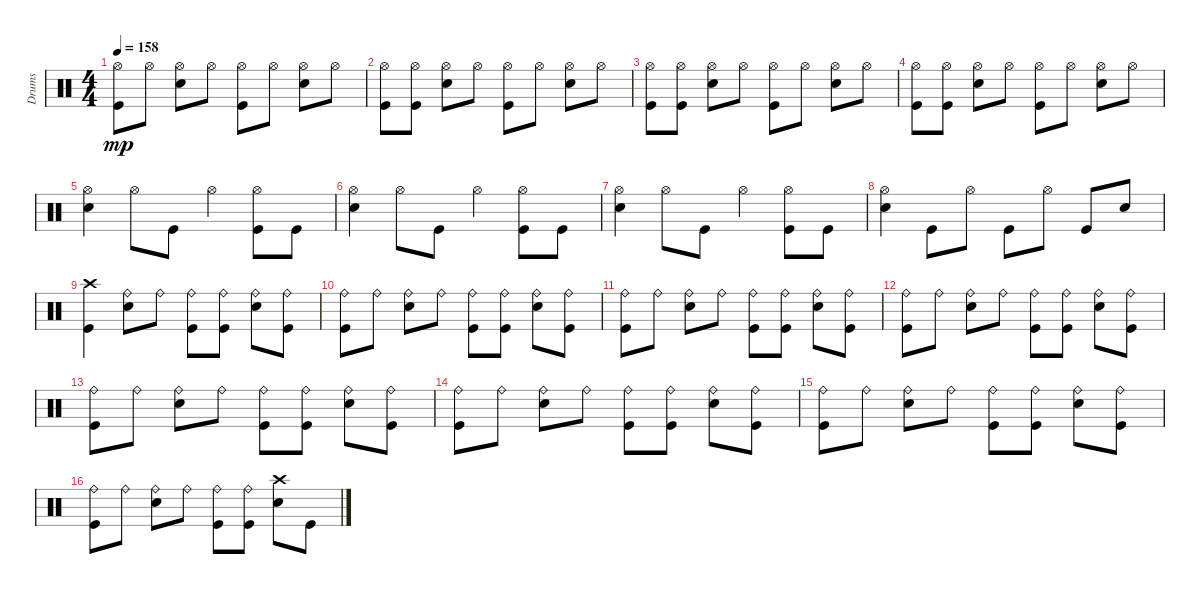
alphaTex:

\track ("Drums" "Drums") {instrument percussion}
\staff {score}
\articulation defaults
\ts (4 4)
\tempo 158
\clef neutral
\ks c
("Hi-Hat (open)" "Kick (hit)").8{dy mp} "Hi-Hat (open)".8 ("Hi-Hat (open)" "Snare (hit) 2").8 "Hi-Hat (open)".8 ("Hi-Hat (open)" "Kick (hit)").8 "Hi-Hat (open)".8 ("Hi-Hat (open)" "Snare (hit) 2").8 "Hi-Hat (open)".8 |
("Hi-Hat (open)" "Kick (hit)").8 ("Hi-Hat (open)" "Kick (hit)").8 ("Hi-Hat (open)" "Snare (hit) 2").8 "Hi-Hat (open)".8 ("Hi-Hat (open)" "Kick (hit)").8 "Hi-Hat (open)".8 ("Hi-Hat (open)" "Snare (hit) 2").8 "Hi-Hat (open)".8 |
("Hi-Hat (open)" "Kick (hit)").8 ("Hi-Hat (open)" "Kick (hit)").8 ("Hi-Hat (open)" "Snare (hit) 2").8 "Hi-Hat (open)".8 ("Hi-Hat (open)" "Kick (hit)").8 "Hi-Hat (open)".8 ("Hi-Hat (open)" "Snare (hit) 2").8 "Hi-Hat (open)".8 |
("Hi-Hat (open)" "Kick (hit)").8 ("Hi-Hat (open)" "Kick (hit)").8 ("Hi-Hat (open)" "Snare (hit) 2").8 "Hi-Hat (open)".8 ("Hi-Hat (open)" "Kick (hit)").8 "Hi-Hat (open)".8 ("Hi-Hat (open)" "Snare (hit) 2").8 "Hi-Hat (open)".8 |
("Hi-Hat (open)" "Snare (hit) 2").4 "Hi-Hat (open)".8 "Kick (hit)".8 "Hi-Hat (open)".4 ("Hi-Hat (open)" "Kick (hit)").8 "Kick (hit)".8 |
("Hi-Hat (open)" "Snare (hit) 2").4 "Hi-Hat (open)".8 "Kick (hit)".8 "Hi-Hat (open)".4 ("Hi-Hat (open)" "Kick (hit)").8 "Kick (hit)".8 |
("Hi-Hat (open)" "Snare (hit) 2").4 "Hi-Hat (open)".8 "Kick (hit)".8 "Hi-Hat (open)".4 ("Hi-Hat (open)" "Kick (hit)").8 "Kick (hit)".8 |
("Hi-Hat (open)" "Snare (hit) 2").4 "Kick (hit)".8 "Hi-Hat (open)".8 "Kick (hit)".8 "Hi-Hat (open)".8 "Kick (hit)".8 "Snare (hit) 2".8 |
("Crash high (hit)" "Kick (hit)").4 ("Ride (bell)" "Snare (hit) 2").8 "Ride (bell)".8 ("Ride (bell)" "Kick (hit)").8 ("Ride (bell)" "Kick (hit)").8 ("Ride (bell)" "Snare (hit) 2").8 ("Ride (bell)" "Kick (hit)").8 |
("Ride (bell)" "Kick (hit)").8 "Ride (bell)".8 ("Ride (bell)" "Snare (hit) 2").8 "Ride (bell)".8 ("Ride (bell)" "Kick (hit)").8 ("Ride (bell)" "Kick (hit)").8 ("Ride (bell)" "Snare (hit) 2").8 ("Ride (bell)" "Kick (hit)").8 |
("Ride (bell)" "Kick (hit)").8 "Ride (bell)".8 ("Ride (bell)" "Snare (hit) 2").8 "Ride (bell)".8 ("Ride (bell)" "Kick (hit)").8 ("Ride (bell)" "Kick (hit)").8 ("Ride (bell)" "Snare (hit) 2").8 ("Ride (bell)" "Kick (hit)").8 |
("Ride (bell)" "Kick (hit)").8 "Ride (bell)".8 ("Ride (bell)" "Snare (hit) 2").8 "Ride (bell)".8 ("Ride (bell)" "Kick (hit)").8 ("Ride (bell)" "Kick (hit)").8 ("Ride (bell)" "Snare (hit) 2").8 ("Ride (bell)" "Kick (hit)").8 |
("Ride (bell)" "Kick (hit)").8 "Ride (bell)".8 ("Ride (bell)" "Snare (hit) 2").8 "Ride (bell)".8 ("Ride (bell)" "Kick (hit)").8 ("Ride (bell)" "Kick (hit)").8 ("Ride (bell)" "Snare (hit) 2").8 ("Ride (bell)" "Kick (hit)").8 |
("Ride (bell)" "Kick (hit)").8 "Ride (bell)".8 ("Ride (bell)" "Snare (hit) 2").8 "Ride (bell)".8 ("Ride (bell)" "Kick (hit)").8 ("Ride (bell)" "Kick (hit)").8 ("Ride (bell)" "Snare (hit) 2").8 ("Ride (bell)" "Kick (hit)").8 |
("Ride (bell)" "Kick (hit)").8 "Ride (bell)".8 ("Ride (bell)" "Snare (hit) 2").8 "Ride (bell)".8 ("Ride (bell)" "Kick (hit)").8 ("Ride (bell)" "Kick (hit)").8 ("Ride (bell)" "Snare (hit) 2").8 ("Ride (bell)" "Kick (hit)").8 |
("Ride (bell)" "Kick (hit)").8 "Ride (bell)".8 ("Ride (bell)" "Snare (hit) 2").8 "Ride (bell)".8 ("Ride (bell)" "Kick (hit)").8 ("Ride (bell)" "Kick (hit)").8 ("Crash high (hit)" "Snare (hit) 2").8 "Kick (hit)".8
